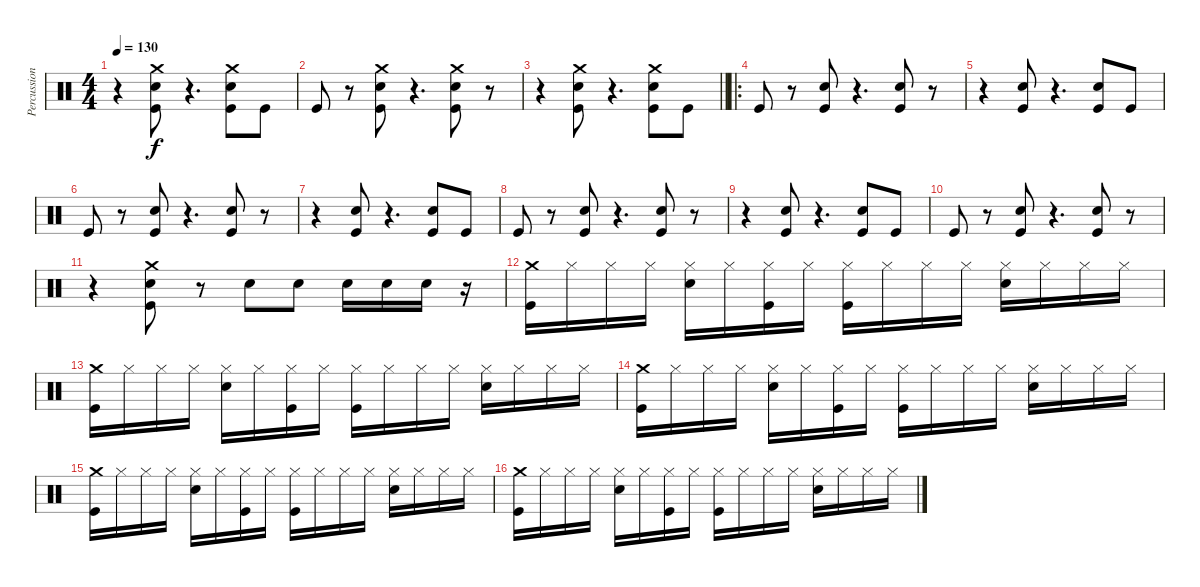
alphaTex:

\track ("Percussion" "Percussion") {instrument percussion}
\staff {score}
\articulation defaults
\ts (4 4)
\tempo 130
\clef neutral
\ks c
r.4{dy f} ("Crash medium (hit)" "Kick (hit)" "Snare (hit) 2").8 r.4{d} ("Crash medium (hit)" "Kick (hit)" "Snare (hit) 2").8 "Kick (hit)".8 |
"Kick (hit)".8 r.8 ("Crash medium (hit)" "Kick (hit)" "Snare (hit) 2").8 r.4{d} ("Crash medium (hit)" "Kick (hit)" "Snare (hit) 2").8 r.8 |
\barLineRight lightlight
r.4 ("Crash medium (hit)" "Kick (hit)" "Snare (hit) 2").8 r.4{d} ("Crash medium (hit)" "Kick (hit)" "Snare (hit) 2").8 "Kick (hit)".8 |
\ro "Kick (hit)".8
r.8 ("Kick (hit)" "Snare (hit) 2").8 r.4{d} ("Kick (hit)" "Snare (hit) 2").8 r.8 |
r.4 ("Kick (hit)" "Snare (hit) 2").8 r.4{d} ("Kick (hit)" "Snare (hit) 2").8 "Kick (hit)".8 |
"Kick (hit)".8 r.8 ("Kick (hit)" "Snare (hit) 2").8 r.4{d} ("Kick (hit)" "Snare (hit) 2").8 r.8 |
r.4 ("Kick (hit)" "Snare (hit) 2").8 r.4{d} ("Kick (hit)" "Snare (hit) 2").8 "Kick (hit)".8 |
"Kick (hit)".8 r.8 ("Kick (hit)" "Snare (hit) 2").8 r.4{d} ("Kick (hit)" "Snare (hit) 2").8 r.8 |
r.4 ("Kick (hit)" "Snare (hit) 2").8 r.4{d} ("Kick (hit)" "Snare (hit) 2").8 "Kick (hit)".8 |
"Kick (hit)".8 r.8 ("Kick (hit)" "Snare (hit) 2").8 r.4{d} ("Kick (hit)" "Snare (hit) 2").8 r.8 |
r.4 ("Crash medium (hit)" "Kick (hit)" "Snare (hit) 2").8 r.8 "Snare (hit) 2".8 "Snare (hit) 2".8 "Snare (hit) 2".16 "Snare (hit) 2".16 "Snare (hit) 2".16 r.16 |
("Crash medium (hit)" "Kick (hit)").16 "Hi-Hat (closed)".16 "Hi-Hat (closed)".16 "Hi-Hat (closed)".16 ("Hi-Hat (closed)" "Snare (hit) 2").16 "Hi-Hat (closed)".16 ("Hi-Hat (closed)" "Kick (hit)").16 "Hi-Hat (closed)".16 ("Hi-Hat (closed)" "Kick (hit)").16 "Hi-Hat (closed)".16 "Hi-Hat (closed)".16 "Hi-Hat (closed)".16 ("Hi-Hat (closed)" "Snare (hit) 2").16 "Hi-Hat (closed)".16 "Hi-Hat (closed)".16 "Hi-Hat (closed)".16 |
("Crash medium (hit)" "Kick (hit)").16 "Hi-Hat (closed)".16 "Hi-Hat (closed)".16 "Hi-Hat (closed)".16 ("Hi-Hat (closed)" "Snare (hit) 2").16 "Hi-Hat (closed)".16 ("Hi-Hat (closed)" "Kick (hit)").16 "Hi-Hat (closed)".16 ("Hi-Hat (closed)" "Kick (hit)").16 "Hi-Hat (closed)".16 "Hi-Hat (closed)".16 "Hi-Hat (closed)".16 ("Hi-Hat (closed)" "Snare (hit) 2").16 "Hi-Hat (closed)".16 "Hi-Hat (closed)".16 "Hi-Hat (closed)".16 |
("Crash medium (hit)" "Kick (hit)").16 "Hi-Hat (closed)".16 "Hi-Hat (closed)".16 "Hi-Hat (closed)".16 ("Hi-Hat (closed)" "Snare (hit) 2").16 "Hi-Hat (closed)".16 ("Hi-Hat (closed)" "Kick (hit)").16 "Hi-Hat (closed)".16 ("Hi-Hat (closed)" "Kick (hit)").16 "Hi-Hat (closed)".16 "Hi-Hat (closed)".16 "Hi-Hat (closed)".16 ("Hi-Hat (closed)" "Snare (hit) 2").16 "Hi-Hat (closed)".16 "Hi-Hat (closed)".16 "Hi-Hat (closed)".16 |
("Crash medium (hit)" "Kick (hit)").16 "Hi-Hat (closed)".16 "Hi-Hat (closed)".16 "Hi-Hat (closed)".16 ("Hi-Hat (closed)" "Snare (hit) 2").16 "Hi-Hat (closed)".16 ("Hi-Hat (closed)" "Kick (hit)").16 "Hi-Hat (closed)".16 ("Hi-Hat (closed)" "Kick (hit)").16 "Hi-Hat (closed)".16 "Hi-Hat (closed)".16 "Hi-Hat (closed)".16 ("Hi-Hat (closed)" "Snare (hit) 2").16 "Hi-Hat (closed)".16 "Hi-Hat (closed)".16 "Hi-Hat (closed)".16 |
("Crash medium (hit)" "Kick (hit)").16 "Hi-Hat (closed)".16 "Hi-Hat (closed)".16 "Hi-Hat (closed)".16 ("Hi-Hat (closed)" "Snare (hit) 2").16 "Hi-Hat (closed)".16 ("Hi-Hat (closed)" "Kick (hit)").16 "Hi-Hat (closed)".16 ("Hi-Hat (closed)" "Kick (hit)").16 "Hi-Hat (closed)".16 "Hi-Hat (closed)".16 "Hi-Hat (closed)".16 ("Hi-Hat (closed)" "Snare (hit) 2").16 "Hi-Hat (closed)".16 "Hi-Hat (closed)".16 "Hi-Hat (closed)".16
